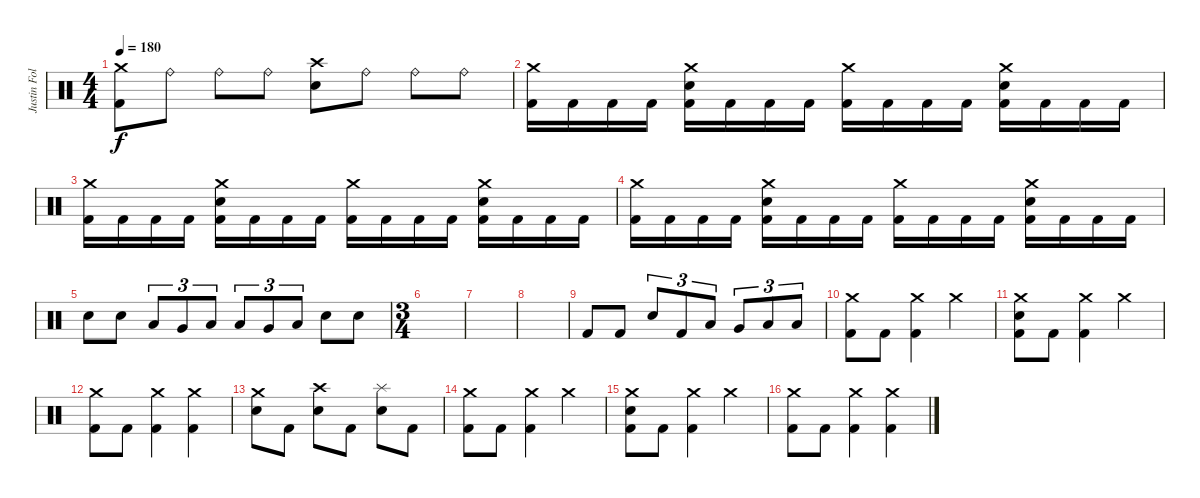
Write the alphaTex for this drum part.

\track ("Justin Foley" "Justin Fol") {instrument percussion}
\staff {score}
\articulation defaults
\ts (4 4)
\tempo 180
\clef neutral
\ks c
("Crash medium (hit)" "Kick (hit) 2").8{dy f} "Ride (bell)".8 "Ride (bell)".8 "Ride (bell)".8 ("Crash high (hit)" "Electric Snare (hit)").8 "Ride (bell)".8 "Ride (bell)".8 "Ride (bell)".8 |
("Crash medium (hit)" "Kick (hit) 2").16 "Kick (hit) 2".16 "Kick (hit) 2".16 "Kick (hit) 2".16 ("Crash medium (hit)" "Electric Snare (hit)" "Kick (hit) 2").16 "Kick (hit) 2".16 "Kick (hit) 2".16 "Kick (hit) 2".16 ("Crash medium (hit)" "Kick (hit) 2").16 "Kick (hit) 2".16 "Kick (hit) 2".16 "Kick (hit) 2".16 ("Crash medium (hit)" "Electric Snare (hit)" "Kick (hit) 2").16 "Kick (hit) 2".16 "Kick (hit) 2".16 "Kick (hit) 2".16 |
("Crash medium (hit)" "Kick (hit) 2").16 "Kick (hit) 2".16 "Kick (hit) 2".16 "Kick (hit) 2".16 ("Crash medium (hit)" "Electric Snare (hit)" "Kick (hit) 2").16 "Kick (hit) 2".16 "Kick (hit) 2".16 "Kick (hit) 2".16 ("Crash medium (hit)" "Kick (hit) 2").16 "Kick (hit) 2".16 "Kick (hit) 2".16 "Kick (hit) 2".16 ("Crash medium (hit)" "Electric Snare (hit)" "Kick (hit) 2").16 "Kick (hit) 2".16 "Kick (hit) 2".16 "Kick (hit) 2".16 |
("Crash medium (hit)" "Kick (hit) 2").16 "Kick (hit) 2".16 "Kick (hit) 2".16 "Kick (hit) 2".16 ("Crash medium (hit)" "Electric Snare (hit)" "Kick (hit) 2").16 "Kick (hit) 2".16 "Kick (hit) 2".16 "Kick (hit) 2".16 ("Crash medium (hit)" "Kick (hit) 2").16 "Kick (hit) 2".16 "Kick (hit) 2".16 "Kick (hit) 2".16 ("Crash medium (hit)" "Electric Snare (hit)" "Kick (hit) 2").16 "Kick (hit) 2".16 "Kick (hit) 2".16 "Kick (hit) 2".16 |
"Electric Snare (hit)".8 "Electric Snare (hit)".8 "Low Tom (hit)".8{tu (3 2)} "Very Low Tom (hit)".8{tu (3 2)} "Low Floor Tom (hit)".8{tu (3 2)} "Low Tom (hit)".8{tu (3 2)} "Very Low Tom (hit)".8{tu (3 2)} "Low Floor Tom (hit)".8{tu (3 2)} "Electric Snare (hit)".8 "Electric Snare (hit)".8 |
\ts (3 4)
|
|
|
"Kick (hit) 2".8 "Kick (hit) 2".8 "Electric Snare (hit)".8{tu (3 2)} "Kick (hit) 2".8{tu (3 2)} "Low Tom (hit)".8{tu (3 2)} "Very Low Tom (hit)".8{tu (3 2)} "Low Floor Tom (hit)".8{tu (3 2)} "Low Tom (hit)".8{tu (3 2)} |
("Crash medium (hit)" "Kick (hit) 2").8 "Kick (hit) 2".8 ("Crash medium (hit)" "Kick (hit) 2").4 "Crash medium (hit)".4 |
("Crash medium (hit)" "Electric Snare (hit)" "Kick (hit) 2").8 "Kick (hit) 2".8 ("Crash medium (hit)" "Kick (hit) 2").4 "Crash medium (hit)".4 |
("Crash medium (hit)" "Kick (hit) 2").8 "Kick (hit) 2".8 ("Crash medium (hit)" "Kick (hit) 2").4 ("Crash medium (hit)" "Kick (hit) 2").4 |
("Crash medium (hit)" "Electric Snare (hit)").8 "Kick (hit) 2".8 ("Crash high (hit)" "Electric Snare (hit)").8 "Kick (hit) 2".8 ("Splash (hit)" "Electric Snare (hit)").8 "Kick (hit) 2".8 |
("Crash medium (hit)" "Kick (hit) 2").8 "Kick (hit) 2".8 ("Crash medium (hit)" "Kick (hit) 2").4 "Crash medium (hit)".4 |
("Crash medium (hit)" "Electric Snare (hit)" "Kick (hit) 2").8 "Kick (hit) 2".8 ("Crash medium (hit)" "Kick (hit) 2").4 "Crash medium (hit)".4 |
("Crash medium (hit)" "Kick (hit) 2").8 "Kick (hit) 2".8 ("Crash medium (hit)" "Kick (hit) 2").4 ("Crash medium (hit)" "Kick (hit) 2").4
